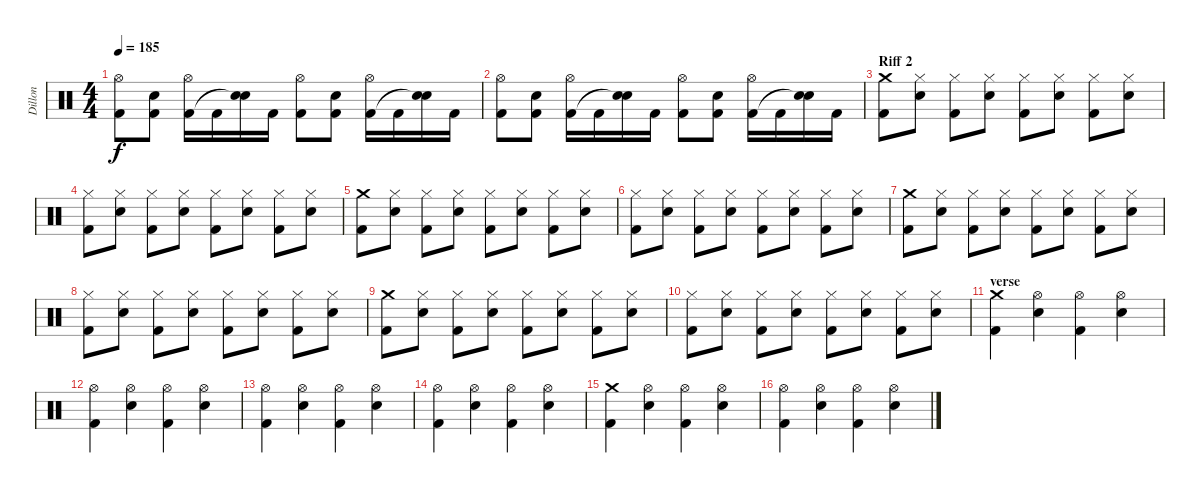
\track ("Dillon" "Dillon") {instrument percussion}
\staff {score}
\articulation defaults
\ts (4 4)
\tempo 185
\clef neutral
\ks c
("Hi-Hat (open)" "Kick (hit) 2").8{dy f} ("Electric Snare (hit)" "Kick (hit) 2").8 ("Hi-Hat (open)" "Kick (hit) 2").16 "Kick (hit) 2".16 ("Electric Snare (hit)" "Snare (hit)"{t}).16 "Kick (hit) 2".16 ("Hi-Hat (open)" "Kick (hit) 2").8 ("Electric Snare (hit)" "Kick (hit) 2").8 ("Hi-Hat (open)" "Kick (hit) 2").16 "Kick (hit) 2".16 ("Electric Snare (hit)" "Snare (hit)"{t}).16 "Kick (hit) 2".16 |
("Hi-Hat (open)" "Kick (hit) 2").8 ("Electric Snare (hit)" "Kick (hit) 2").8 ("Hi-Hat (open)" "Kick (hit) 2").16 "Kick (hit) 2".16 ("Electric Snare (hit)" "Snare (hit)"{t}).16 "Kick (hit) 2".16 ("Hi-Hat (open)" "Kick (hit) 2").8 ("Electric Snare (hit)" "Kick (hit) 2").8 ("Hi-Hat (open)" "Kick (hit) 2").16 "Kick (hit) 2".16 ("Electric Snare (hit)" "Snare (hit)"{t}).16 "Kick (hit) 2".16 |
\section ("" "Riff 2 ")
("Crash medium (hit)" "Kick (hit) 2").8 ("Hi-Hat (closed)" "Electric Snare (hit)").8 ("Hi-Hat (closed)" "Kick (hit) 2").8 ("Hi-Hat (closed)" "Electric Snare (hit)").8 ("Hi-Hat (closed)" "Kick (hit) 2").8 ("Hi-Hat (closed)" "Electric Snare (hit)").8 ("Hi-Hat (closed)" "Kick (hit) 2").8 ("Hi-Hat (closed)" "Electric Snare (hit)").8 |
("Hi-Hat (closed)" "Kick (hit) 2").8 ("Hi-Hat (closed)" "Electric Snare (hit)").8 ("Hi-Hat (closed)" "Kick (hit) 2").8 ("Hi-Hat (closed)" "Electric Snare (hit)").8 ("Hi-Hat (closed)" "Kick (hit) 2").8 ("Hi-Hat (closed)" "Electric Snare (hit)").8 ("Hi-Hat (closed)" "Kick (hit) 2").8 ("Hi-Hat (closed)" "Electric Snare (hit)").8 |
("Crash medium (hit)" "Kick (hit) 2").8 ("Hi-Hat (closed)" "Electric Snare (hit)").8 ("Hi-Hat (closed)" "Kick (hit) 2").8 ("Hi-Hat (closed)" "Electric Snare (hit)").8 ("Hi-Hat (closed)" "Kick (hit) 2").8 ("Hi-Hat (closed)" "Electric Snare (hit)").8 ("Hi-Hat (closed)" "Kick (hit) 2").8 ("Hi-Hat (closed)" "Electric Snare (hit)").8 |
("Hi-Hat (closed)" "Kick (hit) 2").8 ("Hi-Hat (closed)" "Electric Snare (hit)").8 ("Hi-Hat (closed)" "Kick (hit) 2").8 ("Hi-Hat (closed)" "Electric Snare (hit)").8 ("Hi-Hat (closed)" "Kick (hit) 2").8 ("Hi-Hat (closed)" "Electric Snare (hit)").8 ("Hi-Hat (closed)" "Kick (hit) 2").8 ("Hi-Hat (closed)" "Electric Snare (hit)").8 |
("Crash medium (hit)" "Kick (hit) 2").8 ("Hi-Hat (closed)" "Electric Snare (hit)").8 ("Hi-Hat (closed)" "Kick (hit) 2").8 ("Hi-Hat (closed)" "Electric Snare (hit)").8 ("Hi-Hat (closed)" "Kick (hit) 2").8 ("Hi-Hat (closed)" "Electric Snare (hit)").8 ("Hi-Hat (closed)" "Kick (hit) 2").8 ("Hi-Hat (closed)" "Electric Snare (hit)").8 |
("Hi-Hat (closed)" "Kick (hit) 2").8 ("Hi-Hat (closed)" "Electric Snare (hit)").8 ("Hi-Hat (closed)" "Kick (hit) 2").8 ("Hi-Hat (closed)" "Electric Snare (hit)").8 ("Hi-Hat (closed)" "Kick (hit) 2").8 ("Hi-Hat (closed)" "Electric Snare (hit)").8 ("Hi-Hat (closed)" "Kick (hit) 2").8 ("Hi-Hat (closed)" "Electric Snare (hit)").8 |
("Crash medium (hit)" "Kick (hit) 2").8 ("Hi-Hat (closed)" "Electric Snare (hit)").8 ("Hi-Hat (closed)" "Kick (hit) 2").8 ("Hi-Hat (closed)" "Electric Snare (hit)").8 ("Hi-Hat (closed)" "Kick (hit) 2").8 ("Hi-Hat (closed)" "Electric Snare (hit)").8 ("Hi-Hat (closed)" "Kick (hit) 2").8 ("Hi-Hat (closed)" "Electric Snare (hit)").8 |
("Hi-Hat (closed)" "Kick (hit) 2").8 ("Hi-Hat (closed)" "Electric Snare (hit)").8 ("Hi-Hat (closed)" "Kick (hit) 2").8 ("Hi-Hat (closed)" "Electric Snare (hit)").8 ("Hi-Hat (closed)" "Kick (hit) 2").8 ("Hi-Hat (closed)" "Electric Snare (hit)").8 ("Hi-Hat (closed)" "Kick (hit) 2").8 ("Hi-Hat (closed)" "Electric Snare (hit)").8 |
\section ("" "verse")
("Crash medium (hit)" "Kick (hit) 2").4 ("Hi-Hat (open)" "Electric Snare (hit)").4 ("Hi-Hat (open)" "Kick (hit) 2").4 ("Hi-Hat (open)" "Electric Snare (hit)").4 |
("Hi-Hat (open)" "Kick (hit) 2").4 ("Hi-Hat (open)" "Electric Snare (hit)").4 ("Hi-Hat (open)" "Kick (hit) 2").4 ("Hi-Hat (open)" "Electric Snare (hit)").4 |
("Hi-Hat (open)" "Kick (hit) 2").4 ("Hi-Hat (open)" "Electric Snare (hit)").4 ("Hi-Hat (open)" "Kick (hit) 2").4 ("Hi-Hat (open)" "Electric Snare (hit)").4 |
("Hi-Hat (open)" "Kick (hit) 2").4 ("Hi-Hat (open)" "Electric Snare (hit)").4 ("Hi-Hat (open)" "Kick (hit) 2").4 ("Hi-Hat (open)" "Electric Snare (hit)").4 |
("Crash medium (hit)" "Kick (hit) 2").4 ("Hi-Hat (open)" "Electric Snare (hit)").4 ("Hi-Hat (open)" "Kick (hit) 2").4 ("Hi-Hat (open)" "Electric Snare (hit)").4 |
("Hi-Hat (open)" "Kick (hit) 2").4 ("Hi-Hat (open)" "Electric Snare (hit)").4 ("Hi-Hat (open)" "Kick (hit) 2").4 ("Hi-Hat (open)" "Electric Snare (hit)").4
